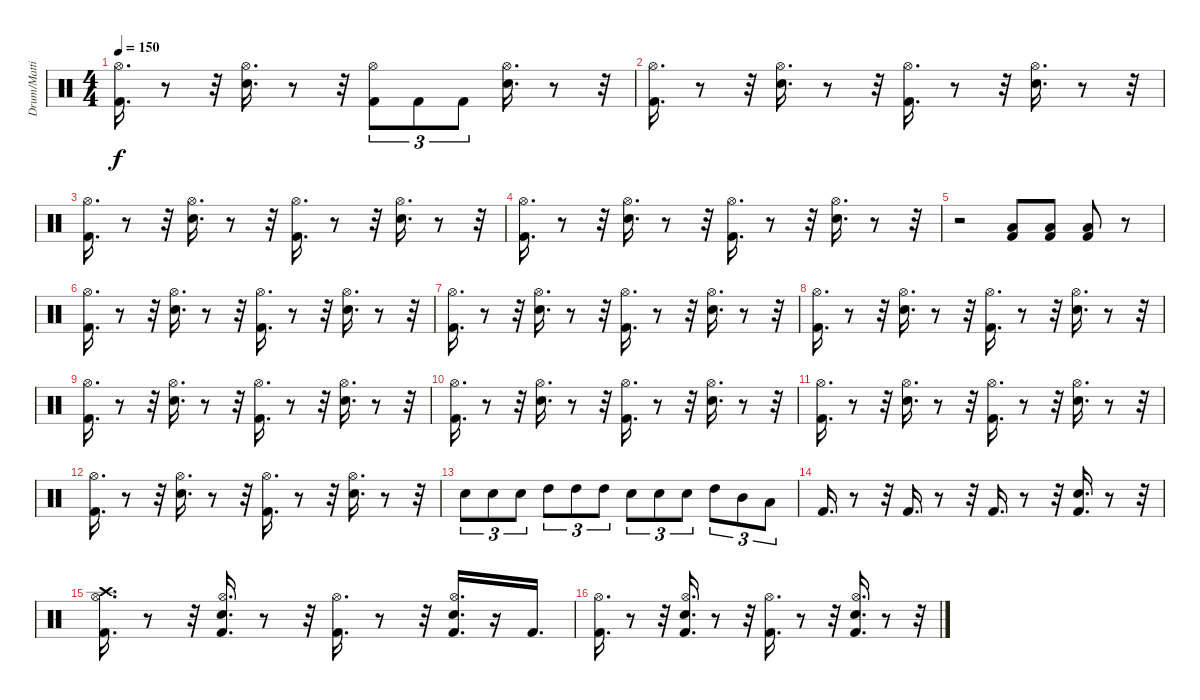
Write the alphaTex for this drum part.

\track ("Drum/Matti" "Drum/Matti") {instrument percussion}
\staff {score}
\articulation defaults
\ts (4 4)
\tempo 150
\clef neutral
\ks c
("Kick (hit) 2" "Hi-Hat (open)").16{d dy f} r.8 r.32 ("Electric Snare (hit)" "Hi-Hat (open)").16{d} r.8 r.32 ("Kick (hit) 2" "Hi-Hat (open)").8{tu (3 2)} "Kick (hit) 2".8{tu (3 2)} "Kick (hit) 2".8{tu (3 2)} ("Electric Snare (hit)" "Hi-Hat (open)").16{d} r.8 r.32 |
("Kick (hit) 2" "Hi-Hat (open)").16{d} r.8 r.32 ("Electric Snare (hit)" "Hi-Hat (open)").16{d} r.8 r.32 ("Kick (hit) 2" "Hi-Hat (open)").16{d} r.8 r.32 ("Electric Snare (hit)" "Hi-Hat (open)").16{d} r.8 r.32 |
("Kick (hit) 2" "Hi-Hat (open)").16{d} r.8 r.32 ("Electric Snare (hit)" "Hi-Hat (open)").16{d} r.8 r.32 ("Kick (hit) 2" "Hi-Hat (open)").16{d} r.8 r.32 ("Electric Snare (hit)" "Hi-Hat (open)").16{d} r.8 r.32 |
("Kick (hit) 2" "Hi-Hat (open)").16{d} r.8 r.32 ("Electric Snare (hit)" "Hi-Hat (open)").16{d} r.8 r.32 ("Kick (hit) 2" "Hi-Hat (open)").16{d} r.8 r.32 ("Electric Snare (hit)" "Hi-Hat (open)").16{d} r.8 r.32 |
r.2 ("Kick (hit) 2" "Low Tom (hit)").8 ("Kick (hit) 2" "Low Tom (hit)").8 ("Kick (hit) 2" "Low Tom (hit)").8 r.8 |
("Kick (hit) 2" "Hi-Hat (open)").16{d} r.8 r.32 ("Electric Snare (hit)" "Hi-Hat (open)").16{d} r.8 r.32 ("Kick (hit) 2" "Hi-Hat (open)").16{d} r.8 r.32 ("Electric Snare (hit)" "Hi-Hat (open)").16{d} r.8 r.32 |
("Kick (hit) 2" "Hi-Hat (open)").16{d} r.8 r.32 ("Electric Snare (hit)" "Hi-Hat (open)").16{d} r.8 r.32 ("Kick (hit) 2" "Hi-Hat (open)").16{d} r.8 r.32 ("Electric Snare (hit)" "Hi-Hat (open)").16{d} r.8 r.32 |
("Kick (hit) 2" "Hi-Hat (open)").16{d} r.8 r.32 ("Electric Snare (hit)" "Hi-Hat (open)").16{d} r.8 r.32 ("Kick (hit) 2" "Hi-Hat (open)").16{d} r.8 r.32 ("Electric Snare (hit)" "Hi-Hat (open)").16{d} r.8 r.32 |
("Kick (hit) 2" "Hi-Hat (open)").16{d} r.8 r.32 ("Electric Snare (hit)" "Hi-Hat (open)").16{d} r.8 r.32 ("Kick (hit) 2" "Hi-Hat (open)").16{d} r.8 r.32 ("Electric Snare (hit)" "Hi-Hat (open)").16{d} r.8 r.32 |
("Kick (hit) 2" "Hi-Hat (open)").16{d} r.8 r.32 ("Electric Snare (hit)" "Hi-Hat (open)").16{d} r.8 r.32 ("Kick (hit) 2" "Hi-Hat (open)").16{d} r.8 r.32 ("Electric Snare (hit)" "Hi-Hat (open)").16{d} r.8 r.32 |
("Kick (hit) 2" "Hi-Hat (open)").16{d} r.8 r.32 ("Electric Snare (hit)" "Hi-Hat (open)").16{d} r.8 r.32 ("Kick (hit) 2" "Hi-Hat (open)").16{d} r.8 r.32 ("Electric Snare (hit)" "Hi-Hat (open)").16{d} r.8 r.32 |
("Kick (hit) 2" "Hi-Hat (open)").16{d} r.8 r.32 ("Electric Snare (hit)" "Hi-Hat (open)").16{d} r.8 r.32 ("Kick (hit) 2" "Hi-Hat (open)").16{d} r.8 r.32 ("Electric Snare (hit)" "Hi-Hat (open)").16{d} r.8 r.32 |
"Electric Snare (hit)".8{tu (3 2)} "Electric Snare (hit)".8{tu (3 2)} "Electric Snare (hit)".8{tu (3 2)} "High Tom (hit)".8{tu (3 2)} "High Tom (hit)".8{tu (3 2)} "High Tom (hit)".8{tu (3 2)} "Electric Snare (hit)".8{tu (3 2)} "Electric Snare (hit)".8{tu (3 2)} "Electric Snare (hit)".8{tu (3 2)} "High Tom (hit)".8{tu (3 2)} "Mid Tom (hit)".8{tu (3 2)} "Low Tom (hit)".8{tu (3 2)} |
"Kick (hit) 2".16{d} r.8 r.32 "Kick (hit) 2".16{d} r.8 r.32 "Kick (hit) 2".16{d} r.8 r.32 ("Kick (hit) 2" "Electric Snare (hit)").16{d} r.8 r.32 |
("Kick (hit) 2" "Hi-Hat (open)" "Crash high (hit)").16{d} r.8 r.32 ("Kick (hit) 2" "Hi-Hat (open)" "Electric Snare (hit)").16{d} r.8 r.32 ("Kick (hit) 2" "Hi-Hat (open)").16{d} r.8 r.32 ("Kick (hit) 2" "Hi-Hat (open)" "Electric Snare (hit)").16{d} r.16 "Kick (hit) 2".16{d} |
("Kick (hit) 2" "Hi-Hat (open)").16{d} r.8 r.32 ("Kick (hit) 2" "Hi-Hat (open)" "Electric Snare (hit)").16{d} r.8 r.32 ("Kick (hit) 2" "Hi-Hat (open)").16{d} r.8 r.32 ("Kick (hit) 2" "Hi-Hat (open)" "Electric Snare (hit)").16{d} r.8 r.32
